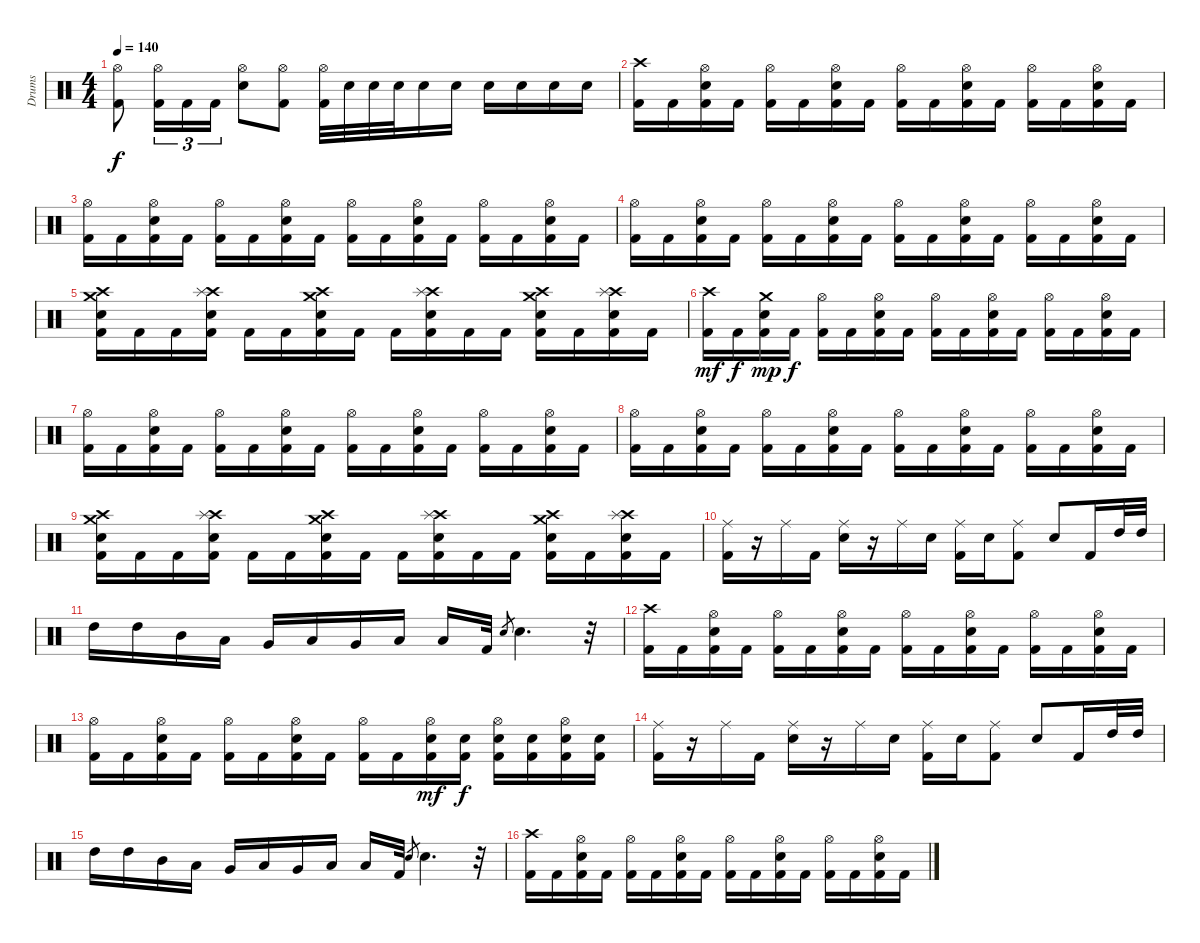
\track ("Drums" "Drums") {instrument percussion}
\staff {score}
\articulation defaults
\ts (4 4)
\tempo 140
\clef neutral
\ks c
("Hi-Hat (open)" "Kick (hit) 2").8{dy f} ("Hi-Hat (open)" "Kick (hit) 2").16{tu (3 2)} "Kick (hit) 2".16{tu (3 2)} "Kick (hit) 2".16{tu (3 2)} ("Hi-Hat (open)" "Electric Snare (hit)").8 ("Hi-Hat (open)" "Kick (hit) 2").8 ("Hi-Hat (open)" "Kick (hit) 2").32 "Electric Snare (hit)".32 "Electric Snare (hit)".32 "Electric Snare (hit)".32 "Electric Snare (hit)".16 "Electric Snare (hit)".16 "Electric Snare (hit)".16 "Electric Snare (hit)".16 "Electric Snare (hit)".16 "Electric Snare (hit)".16 |
("Crash high (hit)" "Kick (hit) 2").16 "Kick (hit) 2".16 ("Hi-Hat (open)" "Electric Snare (hit)" "Kick (hit) 2").16 "Kick (hit) 2".16 ("Hi-Hat (open)" "Kick (hit) 2").16 "Kick (hit) 2".16 ("Hi-Hat (open)" "Electric Snare (hit)" "Kick (hit) 2").16 "Kick (hit) 2".16 ("Hi-Hat (open)" "Kick (hit) 2").16 "Kick (hit) 2".16 ("Hi-Hat (open)" "Electric Snare (hit)" "Kick (hit) 2").16 "Kick (hit) 2".16 ("Hi-Hat (open)" "Kick (hit) 2").16 "Kick (hit) 2".16 ("Hi-Hat (open)" "Electric Snare (hit)" "Kick (hit) 2").16 "Kick (hit) 2".16 |
("Hi-Hat (open)" "Kick (hit) 2").16 "Kick (hit) 2".16 ("Hi-Hat (open)" "Electric Snare (hit)" "Kick (hit) 2").16 "Kick (hit) 2".16 ("Hi-Hat (open)" "Kick (hit) 2").16 "Kick (hit) 2".16 ("Hi-Hat (open)" "Electric Snare (hit)" "Kick (hit) 2").16 "Kick (hit) 2".16 ("Hi-Hat (open)" "Kick (hit) 2").16 "Kick (hit) 2".16 ("Hi-Hat (open)" "Electric Snare (hit)" "Kick (hit) 2").16 "Kick (hit) 2".16 ("Hi-Hat (open)" "Kick (hit) 2").16 "Kick (hit) 2".16 ("Hi-Hat (open)" "Electric Snare (hit)" "Kick (hit) 2").16 "Kick (hit) 2".16 |
("Hi-Hat (open)" "Kick (hit) 2").16 "Kick (hit) 2".16 ("Hi-Hat (open)" "Electric Snare (hit)" "Kick (hit) 2").16 "Kick (hit) 2".16 ("Hi-Hat (open)" "Kick (hit) 2").16 "Kick (hit) 2".16 ("Hi-Hat (open)" "Electric Snare (hit)" "Kick (hit) 2").16 "Kick (hit) 2".16 ("Hi-Hat (open)" "Kick (hit) 2").16 "Kick (hit) 2".16 ("Hi-Hat (open)" "Electric Snare (hit)" "Kick (hit) 2").16 "Kick (hit) 2".16 ("Hi-Hat (open)" "Kick (hit) 2").16 "Kick (hit) 2".16 ("Hi-Hat (open)" "Electric Snare (hit)" "Kick (hit) 2").16 "Kick (hit) 2".16 |
("Crash high (hit)" "Crash medium (hit)" "Electric Snare (hit)" "Kick (hit) 2").16 "Kick (hit) 2".16 "Kick (hit) 2".16 ("Crash high (hit)" "Splash (hit)" "Electric Snare (hit)" "Kick (hit) 2").16 "Kick (hit) 2".16 "Kick (hit) 2".16 ("Crash high (hit)" "Crash medium (hit)" "Electric Snare (hit)" "Kick (hit) 2").16 "Kick (hit) 2".16 "Kick (hit) 2".16 ("Crash high (hit)" "Splash (hit)" "Electric Snare (hit)" "Kick (hit) 2").16 "Kick (hit) 2".16 "Kick (hit) 2".16 ("Crash high (hit)" "Crash medium (hit)" "Electric Snare (hit)" "Kick (hit) 2").16 "Kick (hit) 2".16 ("Crash high (hit)" "Splash (hit)" "Electric Snare (hit)" "Kick (hit) 2").16 "Kick (hit) 2".16 |
("Crash high (hit)" "Kick (hit) 2").16{dy mf} "Kick (hit) 2".16{dy f} ("Crash medium (hit)" "Electric Snare (hit)" "Kick (hit) 2").16{dy mp} "Kick (hit) 2".16{dy f} ("Hi-Hat (open)" "Kick (hit) 2").16 "Kick (hit) 2".16 ("Hi-Hat (open)" "Electric Snare (hit)" "Kick (hit) 2").16 "Kick (hit) 2".16 ("Hi-Hat (open)" "Kick (hit) 2").16 "Kick (hit) 2".16 ("Hi-Hat (open)" "Electric Snare (hit)" "Kick (hit) 2").16 "Kick (hit) 2".16 ("Hi-Hat (open)" "Kick (hit) 2").16 "Kick (hit) 2".16 ("Hi-Hat (open)" "Electric Snare (hit)" "Kick (hit) 2").16 "Kick (hit) 2".16 |
("Hi-Hat (open)" "Kick (hit) 2").16 "Kick (hit) 2".16 ("Hi-Hat (open)" "Electric Snare (hit)" "Kick (hit) 2").16 "Kick (hit) 2".16 ("Hi-Hat (open)" "Kick (hit) 2").16 "Kick (hit) 2".16 ("Hi-Hat (open)" "Electric Snare (hit)" "Kick (hit) 2").16 "Kick (hit) 2".16 ("Hi-Hat (open)" "Kick (hit) 2").16 "Kick (hit) 2".16 ("Hi-Hat (open)" "Electric Snare (hit)" "Kick (hit) 2").16 "Kick (hit) 2".16 ("Hi-Hat (open)" "Kick (hit) 2").16 "Kick (hit) 2".16 ("Hi-Hat (open)" "Electric Snare (hit)" "Kick (hit) 2").16 "Kick (hit) 2".16 |
("Hi-Hat (open)" "Kick (hit) 2").16 "Kick (hit) 2".16 ("Hi-Hat (open)" "Electric Snare (hit)" "Kick (hit) 2").16 "Kick (hit) 2".16 ("Hi-Hat (open)" "Kick (hit) 2").16 "Kick (hit) 2".16 ("Hi-Hat (open)" "Electric Snare (hit)" "Kick (hit) 2").16 "Kick (hit) 2".16 ("Hi-Hat (open)" "Kick (hit) 2").16 "Kick (hit) 2".16 ("Hi-Hat (open)" "Electric Snare (hit)" "Kick (hit) 2").16 "Kick (hit) 2".16 ("Hi-Hat (open)" "Kick (hit) 2").16 "Kick (hit) 2".16 ("Hi-Hat (open)" "Electric Snare (hit)" "Kick (hit) 2").16 "Kick (hit) 2".16 |
("Crash high (hit)" "Crash medium (hit)" "Electric Snare (hit)" "Kick (hit) 2").16 "Kick (hit) 2".16 "Kick (hit) 2".16 ("Crash high (hit)" "Splash (hit)" "Electric Snare (hit)" "Kick (hit) 2").16 "Kick (hit) 2".16 "Kick (hit) 2".16 ("Crash high (hit)" "Crash medium (hit)" "Electric Snare (hit)" "Kick (hit) 2").16 "Kick (hit) 2".16 "Kick (hit) 2".16 ("Crash high (hit)" "Splash (hit)" "Electric Snare (hit)" "Kick (hit) 2").16 "Kick (hit) 2".16 "Kick (hit) 2".16 ("Crash high (hit)" "Crash medium (hit)" "Electric Snare (hit)" "Kick (hit) 2").16 "Kick (hit) 2".16 ("Crash high (hit)" "Splash (hit)" "Electric Snare (hit)" "Kick (hit) 2").16 "Kick (hit) 2".16 |
("Ride (middle)" "Kick (hit) 2").16 r.16 "Ride (middle)".16 "Kick (hit) 2".16 ("Ride (middle)" "Electric Snare (hit)").16 r.16 "Ride (middle)".16 "Electric Snare (hit)".16 ("Ride (middle)" "Kick (hit) 2").16 "Electric Snare (hit)".16 ("Ride (middle)" "Kick (hit) 2").8 "Electric Snare (hit)".8 "Kick (hit) 2".16 "High Tom (hit)".32 "High Tom (hit)".32 |
"High Tom (hit)".16 "High Tom (hit)".16 "Mid Tom (hit)".16 "Low Tom (hit)".16 "Very Low Tom (hit)".16 "Low Tom (hit)".16 "Very Low Tom (hit)".16 "Low Floor Tom (hit)".16 "Low Floor Tom (hit)".16 "Kick (hit) 2".32 "Electric Snare (hit)".8{gr} "Electric Snare (hit)".4{d} r.32 |
("Crash high (hit)" "Kick (hit) 2").16 "Kick (hit) 2".16 ("Hi-Hat (open)" "Electric Snare (hit)" "Kick (hit) 2").16 "Kick (hit) 2".16 ("Hi-Hat (open)" "Kick (hit) 2").16 "Kick (hit) 2".16 ("Hi-Hat (open)" "Electric Snare (hit)" "Kick (hit) 2").16 "Kick (hit) 2".16 ("Hi-Hat (open)" "Kick (hit) 2").16 "Kick (hit) 2".16 ("Hi-Hat (open)" "Electric Snare (hit)" "Kick (hit) 2").16 "Kick (hit) 2".16 ("Hi-Hat (open)" "Kick (hit) 2").16 "Kick (hit) 2".16 ("Hi-Hat (open)" "Electric Snare (hit)" "Kick (hit) 2").16 "Kick (hit) 2".16 |
("Hi-Hat (open)" "Kick (hit) 2").16 "Kick (hit) 2".16 ("Hi-Hat (open)" "Electric Snare (hit)" "Kick (hit) 2").16 "Kick (hit) 2".16 ("Hi-Hat (open)" "Kick (hit) 2").16 "Kick (hit) 2".16 ("Hi-Hat (open)" "Electric Snare (hit)" "Kick (hit) 2").16 "Kick (hit) 2".16 ("Hi-Hat (open)" "Kick (hit) 2").16 "Kick (hit) 2".16 ("Hi-Hat (open)" "Electric Snare (hit)" "Kick (hit) 2").16{dy mf} ("Electric Snare (hit)" "Kick (hit) 2").16{dy f} ("Hi-Hat (open)" "Electric Snare (hit)" "Kick (hit) 2").16 ("Electric Snare (hit)" "Kick (hit) 2").16 ("Hi-Hat (open)" "Electric Snare (hit)" "Kick (hit) 2").16 ("Electric Snare (hit)" "Kick (hit) 2").16 |
("Ride (middle)" "Kick (hit) 2").16 r.16 "Ride (middle)".16 "Kick (hit) 2".16 ("Ride (middle)" "Electric Snare (hit)").16 r.16 "Ride (middle)".16 "Electric Snare (hit)".16 ("Ride (middle)" "Kick (hit) 2").16 "Electric Snare (hit)".16 ("Ride (middle)" "Kick (hit) 2").8 "Electric Snare (hit)".8 "Kick (hit) 2".16 "High Tom (hit)".32 "High Tom (hit)".32 |
"High Tom (hit)".16 "High Tom (hit)".16 "Mid Tom (hit)".16 "Low Tom (hit)".16 "Very Low Tom (hit)".16 "Low Tom (hit)".16 "Very Low Tom (hit)".16 "Low Floor Tom (hit)".16 "Low Floor Tom (hit)".16 "Kick (hit) 2".32 "Electric Snare (hit)".8{gr} "Electric Snare (hit)".4{d} r.32 |
("Crash high (hit)" "Kick (hit) 2").16 "Kick (hit) 2".16 ("Hi-Hat (open)" "Electric Snare (hit)" "Kick (hit) 2").16 "Kick (hit) 2".16 ("Hi-Hat (open)" "Kick (hit) 2").16 "Kick (hit) 2".16 ("Hi-Hat (open)" "Electric Snare (hit)" "Kick (hit) 2").16 "Kick (hit) 2".16 ("Hi-Hat (open)" "Kick (hit) 2").16 "Kick (hit) 2".16 ("Hi-Hat (open)" "Electric Snare (hit)" "Kick (hit) 2").16 "Kick (hit) 2".16 ("Hi-Hat (open)" "Kick (hit) 2").16 "Kick (hit) 2".16 ("Hi-Hat (open)" "Electric Snare (hit)" "Kick (hit) 2").16 "Kick (hit) 2".16
